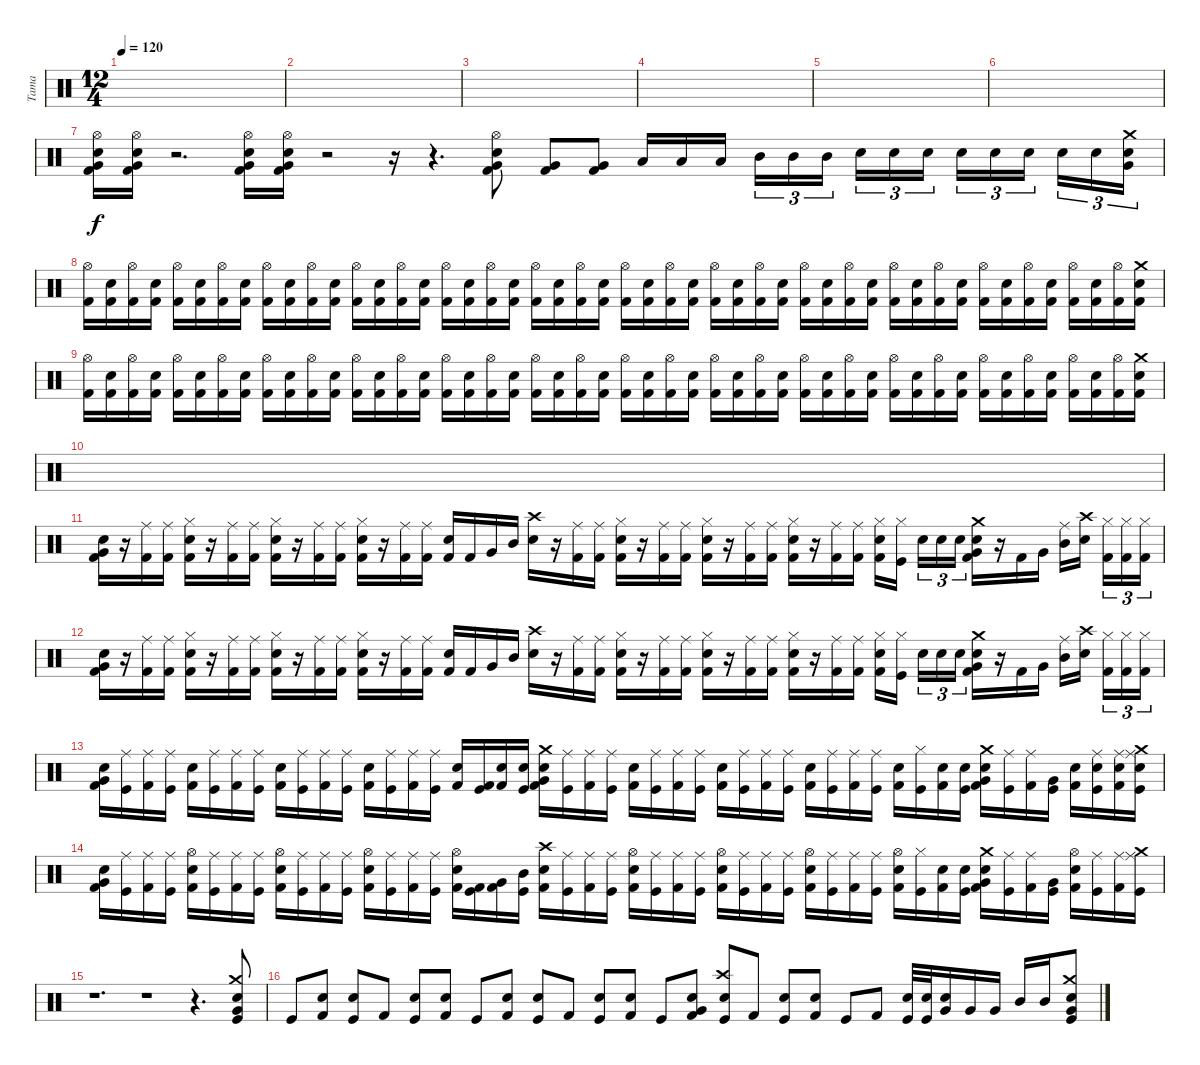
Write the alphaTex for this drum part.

\track ("Tama" "Tama") {instrument percussion}
\staff {score}
\articulation defaults
\ts (12 4)
\tempo 120
\clef neutral
\ks c
|
|
|
|
|
|
("Kick (hit) 2" "Electric Snare (hit)" "Very Low Tom (hit)" "Hi-Hat (open)").16 ("Kick (hit) 2" "Electric Snare (hit)" "Very Low Tom (hit)" "Hi-Hat (open)").16 r.2{d} ("Kick (hit) 2" "Electric Snare (hit)" "Very Low Tom (hit)" "Hi-Hat (open)").16 ("Kick (hit) 2" "Electric Snare (hit)" "Very Low Tom (hit)" "Hi-Hat (open)").16 r.2 r.16 r.4{d} ("Kick (hit) 2" "Electric Snare (hit)" "Very Low Tom (hit)" "Hi-Hat (open)").8 ("Kick (hit) 2" "Very Low Tom (hit)").8 ("Kick (hit) 2" "Very Low Tom (hit)").8 "Low Tom (hit)".16 "Low Tom (hit)".16 "Low Tom (hit)".16 "Mid Tom (hit)".16{tu (3 2)} "Mid Tom (hit)".16{tu (3 2)} "Mid Tom (hit)".16{tu (3 2)} "Electric Snare (hit)".16{tu (3 2)} "Electric Snare (hit)".16{tu (3 2)} "Electric Snare (hit)".16{tu (3 2)} "Electric Snare (hit)".16{tu (3 2)} "Electric Snare (hit)".16{tu (3 2)} "Electric Snare (hit)".16{tu (3 2)} "Electric Snare (hit)".16{tu (3 2)} "Electric Snare (hit)".16{tu (3 2)} ("Electric Snare (hit)" "Crash medium (hit)" "Very Low Tom (hit)").16{tu (3 2)} |
("Kick (hit) 2" "Hi-Hat (open)").16 ("Kick (hit) 2" "Electric Snare (hit)").16 ("Kick (hit) 2" "Hi-Hat (open)").16 ("Kick (hit) 2" "Electric Snare (hit)").16 ("Kick (hit) 2" "Hi-Hat (open)").16 ("Kick (hit) 2" "Electric Snare (hit)").16 ("Kick (hit) 2" "Hi-Hat (open)").16 ("Kick (hit) 2" "Electric Snare (hit)").16 ("Kick (hit) 2" "Hi-Hat (open)").16 ("Kick (hit) 2" "Electric Snare (hit)").16 ("Kick (hit) 2" "Hi-Hat (open)").16 ("Kick (hit) 2" "Electric Snare (hit)").16 ("Kick (hit) 2" "Hi-Hat (open)").16 ("Kick (hit) 2" "Electric Snare (hit)").16 ("Kick (hit) 2" "Hi-Hat (open)").16 ("Kick (hit) 2" "Electric Snare (hit)").16 ("Kick (hit) 2" "Hi-Hat (open)").16 ("Kick (hit) 2" "Electric Snare (hit)").16 ("Kick (hit) 2" "Hi-Hat (open)").16 ("Kick (hit) 2" "Electric Snare (hit)").16 ("Kick (hit) 2" "Hi-Hat (open)").16 ("Kick (hit) 2" "Electric Snare (hit)").16 ("Kick (hit) 2" "Hi-Hat (open)").16 ("Kick (hit) 2" "Electric Snare (hit)").16 ("Kick (hit) 2" "Hi-Hat (open)").16 ("Kick (hit) 2" "Electric Snare (hit)").16 ("Kick (hit) 2" "Hi-Hat (open)").16 ("Kick (hit) 2" "Electric Snare (hit)").16 ("Kick (hit) 2" "Hi-Hat (open)").16 ("Kick (hit) 2" "Electric Snare (hit)").16 ("Kick (hit) 2" "Hi-Hat (open)").16 ("Kick (hit) 2" "Electric Snare (hit)").16 ("Kick (hit) 2" "Hi-Hat (open)").16 ("Kick (hit) 2" "Electric Snare (hit)").16 ("Kick (hit) 2" "Hi-Hat (open)").16 ("Kick (hit) 2" "Electric Snare (hit)").16 ("Kick (hit) 2" "Hi-Hat (open)").16 ("Kick (hit) 2" "Electric Snare (hit)").16 ("Kick (hit) 2" "Hi-Hat (open)").16 ("Kick (hit) 2" "Electric Snare (hit)").16 ("Kick (hit) 2" "Hi-Hat (open)").16 ("Kick (hit) 2" "Electric Snare (hit)").16 ("Kick (hit) 2" "Hi-Hat (open)").16 ("Kick (hit) 2" "Electric Snare (hit)").16 ("Kick (hit) 2" "Hi-Hat (open)").16 ("Kick (hit) 2" "Electric Snare (hit)").16 ("Kick (hit) 2" "Hi-Hat (open)").16 ("Kick (hit) 2" "Electric Snare (hit)" "Crash medium (hit)").16 |
("Kick (hit) 2" "Hi-Hat (open)").16 ("Kick (hit) 2" "Electric Snare (hit)").16 ("Kick (hit) 2" "Hi-Hat (open)").16 ("Kick (hit) 2" "Electric Snare (hit)").16 ("Kick (hit) 2" "Hi-Hat (open)").16 ("Kick (hit) 2" "Electric Snare (hit)").16 ("Kick (hit) 2" "Hi-Hat (open)").16 ("Kick (hit) 2" "Electric Snare (hit)").16 ("Kick (hit) 2" "Hi-Hat (open)").16 ("Kick (hit) 2" "Electric Snare (hit)").16 ("Kick (hit) 2" "Hi-Hat (open)").16 ("Kick (hit) 2" "Electric Snare (hit)").16 ("Kick (hit) 2" "Hi-Hat (open)").16 ("Kick (hit) 2" "Electric Snare (hit)").16 ("Kick (hit) 2" "Hi-Hat (open)").16 ("Kick (hit) 2" "Electric Snare (hit)").16 ("Kick (hit) 2" "Hi-Hat (open)").16 ("Kick (hit) 2" "Electric Snare (hit)").16 ("Kick (hit) 2" "Hi-Hat (open)").16 ("Kick (hit) 2" "Electric Snare (hit)").16 ("Kick (hit) 2" "Hi-Hat (open)").16 ("Kick (hit) 2" "Electric Snare (hit)").16 ("Kick (hit) 2" "Hi-Hat (open)").16 ("Kick (hit) 2" "Electric Snare (hit)").16 ("Kick (hit) 2" "Hi-Hat (open)").16 ("Kick (hit) 2" "Electric Snare (hit)").16 ("Kick (hit) 2" "Hi-Hat (open)").16 ("Kick (hit) 2" "Electric Snare (hit)").16 ("Kick (hit) 2" "Hi-Hat (open)").16 ("Kick (hit) 2" "Electric Snare (hit)").16 ("Kick (hit) 2" "Hi-Hat (open)").16 ("Kick (hit) 2" "Electric Snare (hit)").16 ("Kick (hit) 2" "Hi-Hat (open)").16 ("Kick (hit) 2" "Electric Snare (hit)").16 ("Kick (hit) 2" "Hi-Hat (open)").16 ("Kick (hit) 2" "Electric Snare (hit)").16 ("Kick (hit) 2" "Hi-Hat (open)").16 ("Kick (hit) 2" "Electric Snare (hit)").16 ("Kick (hit) 2" "Hi-Hat (open)").16 ("Kick (hit) 2" "Electric Snare (hit)").16 ("Kick (hit) 2" "Hi-Hat (open)").16 ("Kick (hit) 2" "Electric Snare (hit)").16 ("Kick (hit) 2" "Hi-Hat (open)").16 ("Kick (hit) 2" "Electric Snare (hit)").16 ("Kick (hit) 2" "Hi-Hat (open)").16 ("Kick (hit) 2" "Electric Snare (hit)").16 ("Kick (hit) 2" "Hi-Hat (open)").16 ("Kick (hit) 2" "Electric Snare (hit)" "Crash medium (hit)").16 |
|
("Kick (hit) 2" "Very Low Tom (hit)" "Electric Snare (hit)").16 r.16 ("Kick (hit) 2" "Ride (middle)").16 ("Kick (hit) 2" "Ride (middle)").16 ("Kick (hit) 2" "Electric Snare (hit)" "Hi-Hat (closed)").16 r.16 ("Kick (hit) 2" "Ride (middle)").16 ("Kick (hit) 2" "Ride (middle)").16 ("Kick (hit) 2" "Electric Snare (hit)" "Hi-Hat (closed)").16 r.16 ("Kick (hit) 2" "Ride (middle)").16 ("Kick (hit) 2" "Ride (middle)").16 ("Kick (hit) 2" "Electric Snare (hit)" "Hi-Hat (closed)").16 r.16 ("Kick (hit) 2" "Ride (middle)").16 ("Kick (hit) 2" "Ride (middle)").16 ("Kick (hit) 2" "Electric Snare (hit)").16 "Kick (hit) 2".16 "Very Low Tom (hit)".16 "Mid Tom (hit)".16 ("Electric Snare (hit)" "Crash high (hit)").16 r.16 ("Kick (hit) 2" "Ride (middle)").16 ("Kick (hit) 2" "Ride (middle)").16 ("Kick (hit) 2" "Electric Snare (hit)" "Hi-Hat (closed)").16 r.16 ("Kick (hit) 2" "Ride (middle)").16 ("Kick (hit) 2" "Ride (middle)").16 ("Kick (hit) 2" "Electric Snare (hit)" "Hi-Hat (closed)").16 r.16 ("Kick (hit) 2" "Ride (middle)").16 ("Kick (hit) 2" "Ride (middle)").16 ("Kick (hit) 2" "Electric Snare (hit)" "Hi-Hat (closed)").16 r.16 ("Kick (hit) 2" "Ride (middle)").16 ("Kick (hit) 2" "Ride (middle)").16 ("Kick (hit) 2" "Electric Snare (hit)" "Hi-Hat (closed)").16 ("Kick (hit)" "Hi-Hat (closed)").16 "Electric Snare (hit)".16{tu (3 2)} "Electric Snare (hit)".16{tu (3 2)} "Electric Snare (hit)".16{tu (3 2)} ("Electric Snare (hit)" "Crash medium (hit)" "Very Low Tom (hit)" "Kick (hit) 2").16 r.16 "Kick (hit) 2".16 "Very Low Tom (hit)".16 ("Mid Tom (hit)" "Ride (middle)").16 ("Electric Snare (hit)" "Crash high (hit)").16 ("Kick (hit) 2" "Hi-Hat (closed)").16{tu (3 2)} ("Kick (hit) 2" "Hi-Hat (closed)").16{tu (3 2)} ("Kick (hit) 2" "Hi-Hat (closed)").16{tu (3 2)} |
("Kick (hit) 2" "Very Low Tom (hit)" "Electric Snare (hit)").16 r.16 ("Kick (hit) 2" "Ride (middle)").16 ("Kick (hit) 2" "Ride (middle)").16 ("Kick (hit) 2" "Electric Snare (hit)" "Hi-Hat (closed)").16 r.16 ("Kick (hit) 2" "Ride (middle)").16 ("Kick (hit) 2" "Ride (middle)").16 ("Kick (hit) 2" "Electric Snare (hit)" "Hi-Hat (closed)").16 r.16 ("Kick (hit) 2" "Ride (middle)").16 ("Kick (hit) 2" "Ride (middle)").16 ("Kick (hit) 2" "Electric Snare (hit)" "Hi-Hat (closed)").16 r.16 ("Kick (hit) 2" "Ride (middle)").16 ("Kick (hit) 2" "Ride (middle)").16 ("Kick (hit) 2" "Electric Snare (hit)").16 "Kick (hit) 2".16 "Very Low Tom (hit)".16 "Mid Tom (hit)".16 ("Electric Snare (hit)" "Crash high (hit)").16 r.16 ("Kick (hit) 2" "Ride (middle)").16 ("Kick (hit) 2" "Ride (middle)").16 ("Kick (hit) 2" "Electric Snare (hit)" "Hi-Hat (closed)").16 r.16 ("Kick (hit) 2" "Ride (middle)").16 ("Kick (hit) 2" "Ride (middle)").16 ("Kick (hit) 2" "Electric Snare (hit)" "Hi-Hat (closed)").16 r.16 ("Kick (hit) 2" "Ride (middle)").16 ("Kick (hit) 2" "Ride (middle)").16 ("Kick (hit) 2" "Electric Snare (hit)" "Hi-Hat (closed)").16 r.16 ("Kick (hit) 2" "Ride (middle)").16 ("Kick (hit) 2" "Ride (middle)").16 ("Kick (hit) 2" "Electric Snare (hit)" "Hi-Hat (closed)").16 ("Kick (hit)" "Hi-Hat (closed)").16 "Electric Snare (hit)".16{tu (3 2)} "Electric Snare (hit)".16{tu (3 2)} "Electric Snare (hit)".16{tu (3 2)} ("Electric Snare (hit)" "Crash medium (hit)" "Very Low Tom (hit)" "Kick (hit) 2").16 r.16 "Kick (hit) 2".16 "Very Low Tom (hit)".16 ("Mid Tom (hit)" "Ride (middle)").16 ("Electric Snare (hit)" "Crash high (hit)").16 ("Kick (hit) 2" "Hi-Hat (closed)").16{tu (3 2)} ("Kick (hit) 2" "Hi-Hat (closed)").16{tu (3 2)} ("Kick (hit) 2" "Hi-Hat (closed)").16{tu (3 2)} |
("Kick (hit) 2" "Very Low Tom (hit)" "Electric Snare (hit)").16 ("Kick (hit)" "Ride (middle)").16 ("Kick (hit) 2" "Ride (middle)").16 ("Kick (hit)" "Ride (middle)").16 ("Kick (hit) 2" "Electric Snare (hit)").16 ("Kick (hit)" "Ride (middle)").16 ("Kick (hit) 2" "Ride (middle)").16 ("Kick (hit)" "Ride (middle)").16 ("Kick (hit) 2" "Electric Snare (hit)").16 ("Kick (hit)" "Ride (middle)").16 ("Kick (hit) 2" "Ride (middle)").16 ("Kick (hit)" "Ride (middle)").16 ("Kick (hit) 2" "Electric Snare (hit)").16 ("Kick (hit)" "Ride (middle)").16 ("Kick (hit) 2" "Ride (middle)").16 ("Kick (hit)" "Ride (middle)").16 ("Kick (hit) 2" "Electric Snare (hit)").16 ("Kick (hit)" "Kick (hit) 2").16 ("Kick (hit) 2" "Electric Snare (hit)").16 ("Kick (hit)" "Electric Snare (hit)").16 ("Kick (hit) 2" "Electric Snare (hit)" "Crash medium (hit)" "Very Low Tom (hit)").16 ("Kick (hit)" "Ride (middle)").16 ("Kick (hit) 2" "Ride (middle)").16 ("Kick (hit)" "Ride (middle)").16 ("Kick (hit) 2" "Electric Snare (hit)").16 ("Kick (hit)" "Ride (middle)").16 ("Kick (hit) 2" "Ride (middle)").16 ("Kick (hit)" "Ride (middle)").16 ("Kick (hit) 2" "Electric Snare (hit)").16 ("Kick (hit)" "Ride (middle)").16 ("Kick (hit) 2" "Ride (middle)").16 ("Kick (hit)" "Ride (middle)").16 ("Kick (hit) 2" "Electric Snare (hit)").16 ("Kick (hit)" "Ride (middle)").16 ("Kick (hit) 2" "Ride (middle)").16 ("Kick (hit)" "Ride (middle)").16 ("Kick (hit) 2" "Electric Snare (hit)").16 ("Kick (hit)" "Hi-Hat (closed)").16 ("Kick (hit) 2" "Electric Snare (hit)").16 ("Kick (hit)" "Electric Snare (hit)").16 ("Kick (hit) 2" "Electric Snare (hit)" "Crash medium (hit)" "Very Low Tom (hit)").16 ("Kick (hit)" "Ride (middle)").16 ("Kick (hit) 2" "Ride (middle)").16 ("Kick (hit)" "Very Low Tom (hit)").16 ("Kick (hit) 2" "Electric Snare (hit)").16 ("Kick (hit)" "Ride (middle)" "Electric Snare (hit)").16 ("Kick (hit) 2" "Ride (middle)" "Electric Snare (hit)").16 ("Kick (hit)" "Ride (middle)" "Crash medium (hit)" "Electric Snare (hit)").16 |
("Kick (hit) 2" "Very Low Tom (hit)" "Electric Snare (hit)").16 ("Kick (hit)" "Ride (middle)").16 ("Kick (hit) 2" "Ride (middle)").16 ("Kick (hit)" "Ride (middle)").16 ("Kick (hit) 2" "Electric Snare (hit)" "Hi-Hat (open)").16 ("Kick (hit)" "Ride (middle)").16 ("Kick (hit) 2" "Ride (middle)").16 ("Kick (hit)" "Ride (middle)").16 ("Kick (hit) 2" "Electric Snare (hit)" "Hi-Hat (open)").16 ("Kick (hit)" "Ride (middle)").16 ("Kick (hit) 2" "Ride (middle)").16 ("Kick (hit)" "Ride (middle)").16 ("Kick (hit) 2" "Electric Snare (hit)" "Hi-Hat (open)").16 ("Kick (hit)" "Ride (middle)").16 ("Kick (hit) 2" "Ride (middle)").16 ("Kick (hit)" "Ride (middle)").16 ("Kick (hit) 2" "Electric Snare (hit)" "Hi-Hat (open)").16 ("Kick (hit)" "Kick (hit) 2").16 ("Kick (hit) 2" "Very Low Tom (hit)").16 ("Kick (hit)" "Mid Tom (hit)").16 ("Kick (hit) 2" "Electric Snare (hit)" "Crash high (hit)").16 ("Kick (hit)" "Ride (middle)").16 ("Kick (hit) 2" "Ride (middle)").16 ("Kick (hit)" "Ride (middle)").16 ("Kick (hit) 2" "Electric Snare (hit)" "Hi-Hat (open)").16 ("Kick (hit)" "Ride (middle)").16 ("Kick (hit) 2" "Ride (middle)").16 ("Kick (hit)" "Ride (middle)").16 ("Kick (hit) 2" "Electric Snare (hit)" "Hi-Hat (open)").16 ("Kick (hit)" "Ride (middle)").16 ("Kick (hit) 2" "Ride (middle)").16 ("Kick (hit)" "Ride (middle)").16 ("Kick (hit) 2" "Electric Snare (hit)" "Hi-Hat (open)").16 ("Kick (hit)" "Ride (middle)").16 ("Kick (hit) 2" "Ride (middle)").16 ("Kick (hit)" "Ride (middle)").16 ("Kick (hit) 2" "Electric Snare (hit)" "Hi-Hat (open)").16 ("Kick (hit)" "Hi-Hat (closed)").16 ("Kick (hit) 2" "Electric Snare (hit)").16 ("Kick (hit)" "Electric Snare (hit)").16 ("Kick (hit) 2" "Electric Snare (hit)" "Crash medium (hit)" "Very Low Tom (hit)").16 ("Kick (hit)" "Ride (middle)").16 ("Kick (hit) 2" "Ride (middle)").16 ("Kick (hit)" "Very Low Tom (hit)").16 ("Kick (hit) 2" "Electric Snare (hit)" "Hi-Hat (open)").16 ("Kick (hit)" "Ride (middle)").16 ("Kick (hit) 2" "Ride (middle)").16 ("Kick (hit)" "Ride (middle)" "Crash medium (hit)").16 |
r.1{d} r.1 r.4{d} ("Electric Snare (hit)" "Crash medium (hit)" "Very Low Tom (hit)" "Kick (hit)").8 |
"Kick (hit)".8 ("Kick (hit) 2" "Electric Snare (hit)").8 ("Kick (hit)" "Electric Snare (hit)").8 "Kick (hit) 2".8 ("Kick (hit)" "Electric Snare (hit)").8 ("Kick (hit) 2" "Electric Snare (hit)").8 "Kick (hit)".8 ("Kick (hit) 2" "Electric Snare (hit)").8 ("Kick (hit)" "Electric Snare (hit)").8 "Kick (hit) 2".8 ("Kick (hit)" "Electric Snare (hit)").8 ("Kick (hit) 2" "Electric Snare (hit)").8 "Kick (hit)".8 ("Kick (hit) 2" "Electric Snare (hit)" "Very Low Tom (hit)").8 ("Kick (hit)" "Electric Snare (hit)" "Crash high (hit)").8 "Kick (hit) 2".8 ("Kick (hit)" "Electric Snare (hit)").8 ("Kick (hit) 2" "Electric Snare (hit)").8 "Kick (hit)".8 "Kick (hit) 2".8 ("Kick (hit)" "Electric Snare (hit)").32 ("Kick (hit)" "Electric Snare (hit)").32 ("Very Low Tom (hit)" "Electric Snare (hit)").16 "Very Low Tom (hit)".16 "Very Low Tom (hit)".16 "Mid Tom (hit)".16 "Mid Tom (hit)".16 ("Electric Snare (hit)" "Crash medium (hit)" "Very Low Tom (hit)" "Kick (hit)").8
